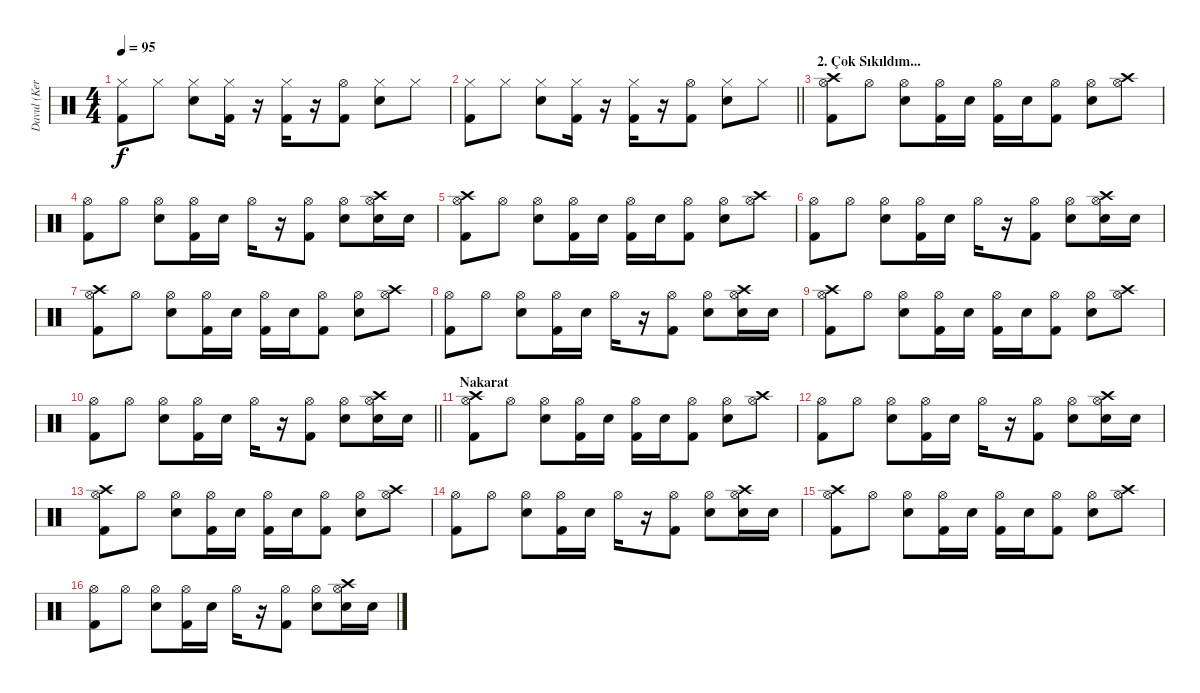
\track ("Davul (Kerem Kabadayı)" "Davul (Ker") {instrument percussion}
\staff {score}
\articulation defaults
\ts (4 4)
\tempo 95
\clef neutral
\ks c
("Kick (hit) 2" "Hi-Hat (closed)").8{dy f} "Hi-Hat (closed)".8 ("Snare (hit) 2" "Hi-Hat (closed)").8 ("Kick (hit) 2" "Hi-Hat (closed)").16 r.16 ("Kick (hit) 2" "Hi-Hat (closed)").16 r.16 ("Kick (hit) 2" "Hi-Hat (open)").8 ("Snare (hit) 2" "Hi-Hat (closed)").8 "Hi-Hat (closed)".8 |
\barLineRight lightlight
("Kick (hit) 2" "Hi-Hat (closed)").8 "Hi-Hat (closed)".8 ("Snare (hit) 2" "Hi-Hat (closed)").8 ("Kick (hit) 2" "Hi-Hat (closed)").16 r.16 ("Kick (hit) 2" "Hi-Hat (closed)").16 r.16 ("Kick (hit) 2" "Hi-Hat (open)").8 ("Snare (hit) 2" "Hi-Hat (closed)").8 "Hi-Hat (closed)".8 |
\section ("" "2. Çok Sıkıldım...")
("Crash high (hit)" "Kick (hit) 2" "Hi-Hat (open)").8 "Hi-Hat (open)".8 ("Snare (hit) 2" "Hi-Hat (open)").8 ("Kick (hit) 2" "Hi-Hat (open)").16 "Snare (hit) 2".16 ("Kick (hit) 2" "Hi-Hat (open)").16 "Snare (hit) 2".16 ("Kick (hit) 2" "Hi-Hat (open)").8 ("Snare (hit) 2" "Hi-Hat (open)").8 ("Crash high (hit)" "Hi-Hat (open)").8 |
("Kick (hit) 2" "Hi-Hat (open)").8 "Hi-Hat (open)".8 ("Snare (hit) 2" "Hi-Hat (open)").8 ("Kick (hit) 2" "Hi-Hat (open)").16 "Snare (hit) 2".16 "Hi-Hat (open)".16 r.16 ("Kick (hit) 2" "Hi-Hat (open)").8 ("Snare (hit) 2" "Hi-Hat (open)").8 ("Crash high (hit)" "Snare (hit) 2" "Hi-Hat (open)").16 "Snare (hit) 2".16 |
("Crash high (hit)" "Kick (hit) 2" "Hi-Hat (open)").8 "Hi-Hat (open)".8 ("Snare (hit) 2" "Hi-Hat (open)").8 ("Kick (hit) 2" "Hi-Hat (open)").16 "Snare (hit) 2".16 ("Kick (hit) 2" "Hi-Hat (open)").16 "Snare (hit) 2".16 ("Kick (hit) 2" "Hi-Hat (open)").8 ("Snare (hit) 2" "Hi-Hat (open)").8 ("Crash high (hit)" "Hi-Hat (open)").8 |
("Kick (hit) 2" "Hi-Hat (open)").8 "Hi-Hat (open)".8 ("Snare (hit) 2" "Hi-Hat (open)").8 ("Kick (hit) 2" "Hi-Hat (open)").16 "Snare (hit) 2".16 "Hi-Hat (open)".16 r.16 ("Kick (hit) 2" "Hi-Hat (open)").8 ("Snare (hit) 2" "Hi-Hat (open)").8 ("Crash high (hit)" "Snare (hit) 2" "Hi-Hat (open)").16 "Snare (hit) 2".16 |
("Crash high (hit)" "Kick (hit) 2" "Hi-Hat (open)").8 "Hi-Hat (open)".8 ("Snare (hit) 2" "Hi-Hat (open)").8 ("Kick (hit) 2" "Hi-Hat (open)").16 "Snare (hit) 2".16 ("Kick (hit) 2" "Hi-Hat (open)").16 "Snare (hit) 2".16 ("Kick (hit) 2" "Hi-Hat (open)").8 ("Snare (hit) 2" "Hi-Hat (open)").8 ("Crash high (hit)" "Hi-Hat (open)").8 |
("Kick (hit) 2" "Hi-Hat (open)").8 "Hi-Hat (open)".8 ("Snare (hit) 2" "Hi-Hat (open)").8 ("Kick (hit) 2" "Hi-Hat (open)").16 "Snare (hit) 2".16 "Hi-Hat (open)".16 r.16 ("Kick (hit) 2" "Hi-Hat (open)").8 ("Snare (hit) 2" "Hi-Hat (open)").8 ("Crash high (hit)" "Snare (hit) 2" "Hi-Hat (open)").16 "Snare (hit) 2".16 |
("Crash high (hit)" "Kick (hit) 2" "Hi-Hat (open)").8 "Hi-Hat (open)".8 ("Snare (hit) 2" "Hi-Hat (open)").8 ("Kick (hit) 2" "Hi-Hat (open)").16 "Snare (hit) 2".16 ("Kick (hit) 2" "Hi-Hat (open)").16 "Snare (hit) 2".16 ("Kick (hit) 2" "Hi-Hat (open)").8 ("Snare (hit) 2" "Hi-Hat (open)").8 ("Crash high (hit)" "Hi-Hat (open)").8 |
\barLineRight lightlight
("Kick (hit) 2" "Hi-Hat (open)").8 "Hi-Hat (open)".8 ("Snare (hit) 2" "Hi-Hat (open)").8 ("Kick (hit) 2" "Hi-Hat (open)").16 "Snare (hit) 2".16 "Hi-Hat (open)".16 r.16 ("Kick (hit) 2" "Hi-Hat (open)").8 ("Snare (hit) 2" "Hi-Hat (open)").8 ("Crash high (hit)" "Snare (hit) 2" "Hi-Hat (open)").16 "Snare (hit) 2".16 |
\section ("" "Nakarat")
("Crash high (hit)" "Kick (hit) 2" "Hi-Hat (open)").8 "Hi-Hat (open)".8 ("Snare (hit) 2" "Hi-Hat (open)").8 ("Kick (hit) 2" "Hi-Hat (open)").16 "Snare (hit) 2".16 ("Kick (hit) 2" "Hi-Hat (open)").16 "Snare (hit) 2".16 ("Kick (hit) 2" "Hi-Hat (open)").8 ("Snare (hit) 2" "Hi-Hat (open)").8 ("Crash high (hit)" "Hi-Hat (open)").8 |
("Kick (hit) 2" "Hi-Hat (open)").8 "Hi-Hat (open)".8 ("Snare (hit) 2" "Hi-Hat (open)").8 ("Kick (hit) 2" "Hi-Hat (open)").16 "Snare (hit) 2".16 "Hi-Hat (open)".16 r.16 ("Kick (hit) 2" "Hi-Hat (open)").8 ("Snare (hit) 2" "Hi-Hat (open)").8 ("Crash high (hit)" "Snare (hit) 2" "Hi-Hat (open)").16 "Snare (hit) 2".16 |
("Crash high (hit)" "Kick (hit) 2" "Hi-Hat (open)").8 "Hi-Hat (open)".8 ("Snare (hit) 2" "Hi-Hat (open)").8 ("Kick (hit) 2" "Hi-Hat (open)").16 "Snare (hit) 2".16 ("Kick (hit) 2" "Hi-Hat (open)").16 "Snare (hit) 2".16 ("Kick (hit) 2" "Hi-Hat (open)").8 ("Snare (hit) 2" "Hi-Hat (open)").8 ("Crash high (hit)" "Hi-Hat (open)").8 |
("Kick (hit) 2" "Hi-Hat (open)").8 "Hi-Hat (open)".8 ("Snare (hit) 2" "Hi-Hat (open)").8 ("Kick (hit) 2" "Hi-Hat (open)").16 "Snare (hit) 2".16 "Hi-Hat (open)".16 r.16 ("Kick (hit) 2" "Hi-Hat (open)").8 ("Snare (hit) 2" "Hi-Hat (open)").8 ("Crash high (hit)" "Snare (hit) 2" "Hi-Hat (open)").16 "Snare (hit) 2".16 |
("Crash high (hit)" "Kick (hit) 2" "Hi-Hat (open)").8 "Hi-Hat (open)".8 ("Snare (hit) 2" "Hi-Hat (open)").8 ("Kick (hit) 2" "Hi-Hat (open)").16 "Snare (hit) 2".16 ("Kick (hit) 2" "Hi-Hat (open)").16 "Snare (hit) 2".16 ("Kick (hit) 2" "Hi-Hat (open)").8 ("Snare (hit) 2" "Hi-Hat (open)").8 ("Crash high (hit)" "Hi-Hat (open)").8 |
("Kick (hit) 2" "Hi-Hat (open)").8 "Hi-Hat (open)".8 ("Snare (hit) 2" "Hi-Hat (open)").8 ("Kick (hit) 2" "Hi-Hat (open)").16 "Snare (hit) 2".16 "Hi-Hat (open)".16 r.16 ("Kick (hit) 2" "Hi-Hat (open)").8 ("Snare (hit) 2" "Hi-Hat (open)").8 ("Crash high (hit)" "Snare (hit) 2" "Hi-Hat (open)").16 "Snare (hit) 2".16
